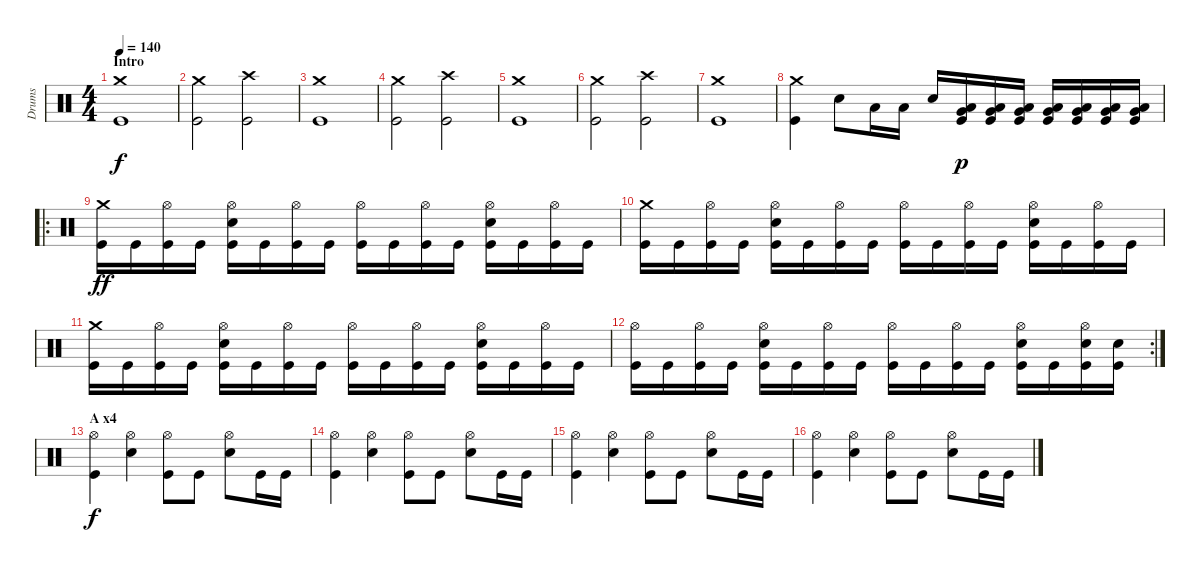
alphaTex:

\track ("Drums" "Drums") {instrument percussion}
\staff {score}
\articulation defaults
\ts (4 4)
\section ("" "Intro")
\tempo 140
\clef neutral
\ks c
("Crash medium (hit)" "Kick (hit)").1{dy f} |
("Crash medium (hit)" "Kick (hit)").2 ("Crash high (hit)" "Kick (hit)").2 |
("Crash medium (hit)" "Kick (hit)").1 |
("Crash medium (hit)" "Kick (hit)").2 ("Crash high (hit)" "Kick (hit)").2 |
("Crash medium (hit)" "Kick (hit)").1 |
("Crash medium (hit)" "Kick (hit)").2 ("Crash high (hit)" "Kick (hit)").2 |
("Crash medium (hit)" "Kick (hit)").1 |
("Crash medium (hit)" "Kick (hit)").4 "Snare (hit) 2".8 "Low Tom (hit)".16 "Low Tom (hit)".16 "Snare (hit) 2".16 ("Low Tom (hit)" "Very Low Tom (hit)" "Kick (hit)").16{dy p} ("Low Tom (hit)" "Very Low Tom (hit)" "Kick (hit)").16 ("Low Tom (hit)" "Very Low Tom (hit)" "Kick (hit)").16 ("Very Low Tom (hit)" "Low Floor Tom (hit)" "Kick (hit)").16 ("Very Low Tom (hit)" "Low Floor Tom (hit)" "Kick (hit)").16 ("Very Low Tom (hit)" "Low Floor Tom (hit)" "Kick (hit)").16 ("Very Low Tom (hit)" "Low Floor Tom (hit)" "Kick (hit)").16 |
\ro
("Crash medium (hit)" "Kick (hit)").16{dy ff} "Kick (hit)".16 ("Hi-Hat (open)" "Kick (hit)").16 "Kick (hit)".16 ("Hi-Hat (open)" "Snare (hit) 2" "Kick (hit)").16 "Kick (hit)".16 ("Hi-Hat (open)" "Kick (hit)").16 "Kick (hit)".16 ("Hi-Hat (open)" "Kick (hit)").16 "Kick (hit)".16 ("Hi-Hat (open)" "Kick (hit)").16 "Kick (hit)".16 ("Hi-Hat (open)" "Snare (hit) 2" "Kick (hit)").16 "Kick (hit)".16 ("Hi-Hat (open)" "Kick (hit)").16 "Kick (hit)".16 |
("Crash medium (hit)" "Kick (hit)").16 "Kick (hit)".16 ("Hi-Hat (open)" "Kick (hit)").16 "Kick (hit)".16 ("Hi-Hat (open)" "Snare (hit) 2" "Kick (hit)").16 "Kick (hit)".16 ("Hi-Hat (open)" "Kick (hit)").16 "Kick (hit)".16 ("Hi-Hat (open)" "Kick (hit)").16 "Kick (hit)".16 ("Hi-Hat (open)" "Kick (hit)").16 "Kick (hit)".16 ("Hi-Hat (open)" "Snare (hit) 2" "Kick (hit)").16 "Kick (hit)".16 ("Hi-Hat (open)" "Kick (hit)").16 "Kick (hit)".16 |
("Crash medium (hit)" "Kick (hit)").16 "Kick (hit)".16 ("Hi-Hat (open)" "Kick (hit)").16 "Kick (hit)".16 ("Hi-Hat (open)" "Snare (hit) 2" "Kick (hit)").16 "Kick (hit)".16 ("Hi-Hat (open)" "Kick (hit)").16 "Kick (hit)".16 ("Hi-Hat (open)" "Kick (hit)").16 "Kick (hit)".16 ("Hi-Hat (open)" "Kick (hit)").16 "Kick (hit)".16 ("Hi-Hat (open)" "Snare (hit) 2" "Kick (hit)").16 "Kick (hit)".16 ("Hi-Hat (open)" "Kick (hit)").16 "Kick (hit)".16 |
\rc 2
("Hi-Hat (open)" "Kick (hit)").16 "Kick (hit)".16 ("Hi-Hat (open)" "Kick (hit)").16 "Kick (hit)".16 ("Hi-Hat (open)" "Snare (hit) 2" "Kick (hit)").16 "Kick (hit)".16 ("Hi-Hat (open)" "Kick (hit)").16 "Kick (hit)".16 ("Hi-Hat (open)" "Kick (hit)").16 "Kick (hit)".16 ("Hi-Hat (open)" "Kick (hit)").16 "Kick (hit)".16 ("Hi-Hat (open)" "Snare (hit) 2" "Kick (hit)").16 "Kick (hit)".16 ("Hi-Hat (open)" "Snare (hit) 2" "Kick (hit)").16 ("Snare (hit) 2" "Kick (hit)").16 |
\section ("" "A x4")
("Hi-Hat (open)" "Kick (hit)").4{dy f} ("Hi-Hat (open)" "Snare (hit) 2").4 ("Hi-Hat (open)" "Kick (hit)").8 "Kick (hit)".8 ("Hi-Hat (open)" "Snare (hit) 2").8 "Kick (hit)".16 "Kick (hit)".16 |
("Hi-Hat (open)" "Kick (hit)").4 ("Hi-Hat (open)" "Snare (hit) 2").4 ("Hi-Hat (open)" "Kick (hit)").8 "Kick (hit)".8 ("Hi-Hat (open)" "Snare (hit) 2").8 "Kick (hit)".16 "Kick (hit)".16 |
("Hi-Hat (open)" "Kick (hit)").4 ("Hi-Hat (open)" "Snare (hit) 2").4 ("Hi-Hat (open)" "Kick (hit)").8 "Kick (hit)".8 ("Hi-Hat (open)" "Snare (hit) 2").8 "Kick (hit)".16 "Kick (hit)".16 |
("Hi-Hat (open)" "Kick (hit)").4 ("Hi-Hat (open)" "Snare (hit) 2").4 ("Hi-Hat (open)" "Kick (hit)").8 "Kick (hit)".8 ("Hi-Hat (open)" "Snare (hit) 2").8 "Kick (hit)".16 "Kick (hit)".16
